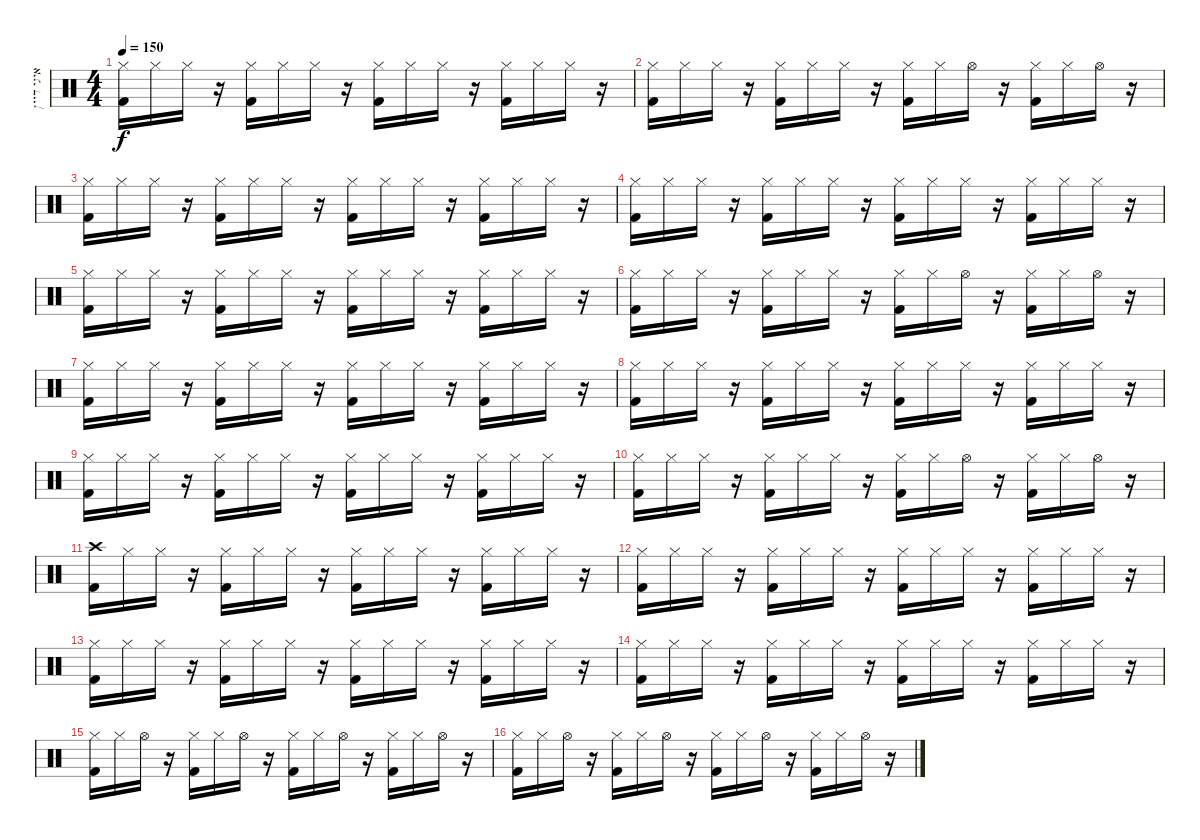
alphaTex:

\track ("איגי דיין" "איגי דיין") {instrument percussion}
\staff {score}
\articulation defaults
\ts (4 4)
\tempo 150
\clef neutral
\ks c
("Hi-Hat (closed)" "Kick (hit) 2").16{dy f} "Hi-Hat (closed)".16 "Hi-Hat (closed)".16 r.16 ("Hi-Hat (closed)" "Kick (hit) 2").16 "Hi-Hat (closed)".16 "Hi-Hat (closed)".16 r.16 ("Hi-Hat (closed)" "Kick (hit) 2").16 "Hi-Hat (closed)".16 "Hi-Hat (closed)".16 r.16 ("Hi-Hat (closed)" "Kick (hit) 2").16 "Hi-Hat (closed)".16 "Hi-Hat (closed)".16 r.16 |
("Hi-Hat (closed)" "Kick (hit) 2").16 "Hi-Hat (closed)".16 "Hi-Hat (closed)".16 r.16 ("Hi-Hat (closed)" "Kick (hit) 2").16 "Hi-Hat (closed)".16 "Hi-Hat (closed)".16 r.16 ("Hi-Hat (closed)" "Kick (hit) 2").16 "Hi-Hat (closed)".16 "Hi-Hat (open)".16 r.16 ("Hi-Hat (closed)" "Kick (hit) 2").16 "Hi-Hat (closed)".16 "Hi-Hat (open)".16 r.16 |
("Hi-Hat (closed)" "Kick (hit) 2").16 "Hi-Hat (closed)".16 "Hi-Hat (closed)".16 r.16 ("Hi-Hat (closed)" "Kick (hit) 2").16 "Hi-Hat (closed)".16 "Hi-Hat (closed)".16 r.16 ("Hi-Hat (closed)" "Kick (hit) 2").16 "Hi-Hat (closed)".16 "Hi-Hat (closed)".16 r.16 ("Hi-Hat (closed)" "Kick (hit) 2").16 "Hi-Hat (closed)".16 "Hi-Hat (closed)".16 r.16 |
("Hi-Hat (closed)" "Kick (hit) 2").16 "Hi-Hat (closed)".16 "Hi-Hat (closed)".16 r.16 ("Hi-Hat (closed)" "Kick (hit) 2").16 "Hi-Hat (closed)".16 "Hi-Hat (closed)".16 r.16 ("Hi-Hat (closed)" "Kick (hit) 2").16 "Hi-Hat (closed)".16 "Hi-Hat (closed)".16 r.16 ("Hi-Hat (closed)" "Kick (hit) 2").16 "Hi-Hat (closed)".16 "Hi-Hat (closed)".16 r.16 |
("Hi-Hat (closed)" "Kick (hit) 2").16 "Hi-Hat (closed)".16 "Hi-Hat (closed)".16 r.16 ("Hi-Hat (closed)" "Kick (hit) 2").16 "Hi-Hat (closed)".16 "Hi-Hat (closed)".16 r.16 ("Hi-Hat (closed)" "Kick (hit) 2").16 "Hi-Hat (closed)".16 "Hi-Hat (closed)".16 r.16 ("Hi-Hat (closed)" "Kick (hit) 2").16 "Hi-Hat (closed)".16 "Hi-Hat (closed)".16 r.16 |
("Hi-Hat (closed)" "Kick (hit) 2").16 "Hi-Hat (closed)".16 "Hi-Hat (closed)".16 r.16 ("Hi-Hat (closed)" "Kick (hit) 2").16 "Hi-Hat (closed)".16 "Hi-Hat (closed)".16 r.16 ("Hi-Hat (closed)" "Kick (hit) 2").16 "Hi-Hat (closed)".16 "Hi-Hat (open)".16 r.16 ("Hi-Hat (closed)" "Kick (hit) 2").16 "Hi-Hat (closed)".16 "Hi-Hat (open)".16 r.16 |
("Hi-Hat (closed)" "Kick (hit) 2").16 "Hi-Hat (closed)".16 "Hi-Hat (closed)".16 r.16 ("Hi-Hat (closed)" "Kick (hit) 2").16 "Hi-Hat (closed)".16 "Hi-Hat (closed)".16 r.16 ("Hi-Hat (closed)" "Kick (hit) 2").16 "Hi-Hat (closed)".16 "Hi-Hat (closed)".16 r.16 ("Hi-Hat (closed)" "Kick (hit) 2").16 "Hi-Hat (closed)".16 "Hi-Hat (closed)".16 r.16 |
("Hi-Hat (closed)" "Kick (hit) 2").16 "Hi-Hat (closed)".16 "Hi-Hat (closed)".16 r.16 ("Hi-Hat (closed)" "Kick (hit) 2").16 "Hi-Hat (closed)".16 "Hi-Hat (closed)".16 r.16 ("Hi-Hat (closed)" "Kick (hit) 2").16 "Hi-Hat (closed)".16 "Hi-Hat (closed)".16 r.16 ("Hi-Hat (closed)" "Kick (hit) 2").16 "Hi-Hat (closed)".16 "Hi-Hat (closed)".16 r.16 |
("Hi-Hat (closed)" "Kick (hit) 2").16 "Hi-Hat (closed)".16 "Hi-Hat (closed)".16 r.16 ("Hi-Hat (closed)" "Kick (hit) 2").16 "Hi-Hat (closed)".16 "Hi-Hat (closed)".16 r.16 ("Hi-Hat (closed)" "Kick (hit) 2").16 "Hi-Hat (closed)".16 "Hi-Hat (closed)".16 r.16 ("Hi-Hat (closed)" "Kick (hit) 2").16 "Hi-Hat (closed)".16 "Hi-Hat (closed)".16 r.16 |
("Hi-Hat (closed)" "Kick (hit) 2").16 "Hi-Hat (closed)".16 "Hi-Hat (closed)".16 r.16 ("Hi-Hat (closed)" "Kick (hit) 2").16 "Hi-Hat (closed)".16 "Hi-Hat (closed)".16 r.16 ("Hi-Hat (closed)" "Kick (hit) 2").16 "Hi-Hat (closed)".16 "Hi-Hat (open)".16 r.16 ("Hi-Hat (closed)" "Kick (hit) 2").16 "Hi-Hat (closed)".16 "Hi-Hat (open)".16 r.16 |
("Crash high (hit)" "Kick (hit) 2").16 "Hi-Hat (closed)".16 "Hi-Hat (closed)".16 r.16 ("Hi-Hat (closed)" "Kick (hit) 2").16 "Hi-Hat (closed)".16 "Hi-Hat (closed)".16 r.16 ("Hi-Hat (closed)" "Kick (hit) 2").16 "Hi-Hat (closed)".16 "Hi-Hat (closed)".16 r.16 ("Hi-Hat (closed)" "Kick (hit) 2").16 "Hi-Hat (closed)".16 "Hi-Hat (closed)".16 r.16 |
("Hi-Hat (closed)" "Kick (hit) 2").16 "Hi-Hat (closed)".16 "Hi-Hat (closed)".16 r.16 ("Hi-Hat (closed)" "Kick (hit) 2").16 "Hi-Hat (closed)".16 "Hi-Hat (closed)".16 r.16 ("Hi-Hat (closed)" "Kick (hit) 2").16 "Hi-Hat (closed)".16 "Hi-Hat (closed)".16 r.16 ("Hi-Hat (closed)" "Kick (hit) 2").16 "Hi-Hat (closed)".16 "Hi-Hat (closed)".16 r.16 |
("Hi-Hat (closed)" "Kick (hit) 2").16 "Hi-Hat (closed)".16 "Hi-Hat (closed)".16 r.16 ("Hi-Hat (closed)" "Kick (hit) 2").16 "Hi-Hat (closed)".16 "Hi-Hat (closed)".16 r.16 ("Hi-Hat (closed)" "Kick (hit) 2").16 "Hi-Hat (closed)".16 "Hi-Hat (closed)".16 r.16 ("Hi-Hat (closed)" "Kick (hit) 2").16 "Hi-Hat (closed)".16 "Hi-Hat (closed)".16 r.16 |
("Hi-Hat (closed)" "Kick (hit) 2").16 "Hi-Hat (closed)".16 "Hi-Hat (closed)".16 r.16 ("Hi-Hat (closed)" "Kick (hit) 2").16 "Hi-Hat (closed)".16 "Hi-Hat (closed)".16 r.16 ("Hi-Hat (closed)" "Kick (hit) 2").16 "Hi-Hat (closed)".16 "Hi-Hat (closed)".16 r.16 ("Hi-Hat (closed)" "Kick (hit) 2").16 "Hi-Hat (closed)".16 "Hi-Hat (closed)".16 r.16 |
("Hi-Hat (closed)" "Kick (hit) 2").16 "Hi-Hat (closed)".16 "Hi-Hat (open)".16 r.16 ("Hi-Hat (closed)" "Kick (hit) 2").16 "Hi-Hat (closed)".16 "Hi-Hat (open)".16 r.16 ("Hi-Hat (closed)" "Kick (hit) 2").16 "Hi-Hat (closed)".16 "Hi-Hat (open)".16 r.16 ("Hi-Hat (closed)" "Kick (hit) 2").16 "Hi-Hat (closed)".16 "Hi-Hat (open)".16 r.16 |
("Hi-Hat (closed)" "Kick (hit) 2").16 "Hi-Hat (closed)".16 "Hi-Hat (open)".16 r.16 ("Hi-Hat (closed)" "Kick (hit) 2").16 "Hi-Hat (closed)".16 "Hi-Hat (open)".16 r.16 ("Hi-Hat (closed)" "Kick (hit) 2").16 "Hi-Hat (closed)".16 "Hi-Hat (open)".16 r.16 ("Hi-Hat (closed)" "Kick (hit) 2").16 "Hi-Hat (closed)".16 "Hi-Hat (open)".16 r.16
